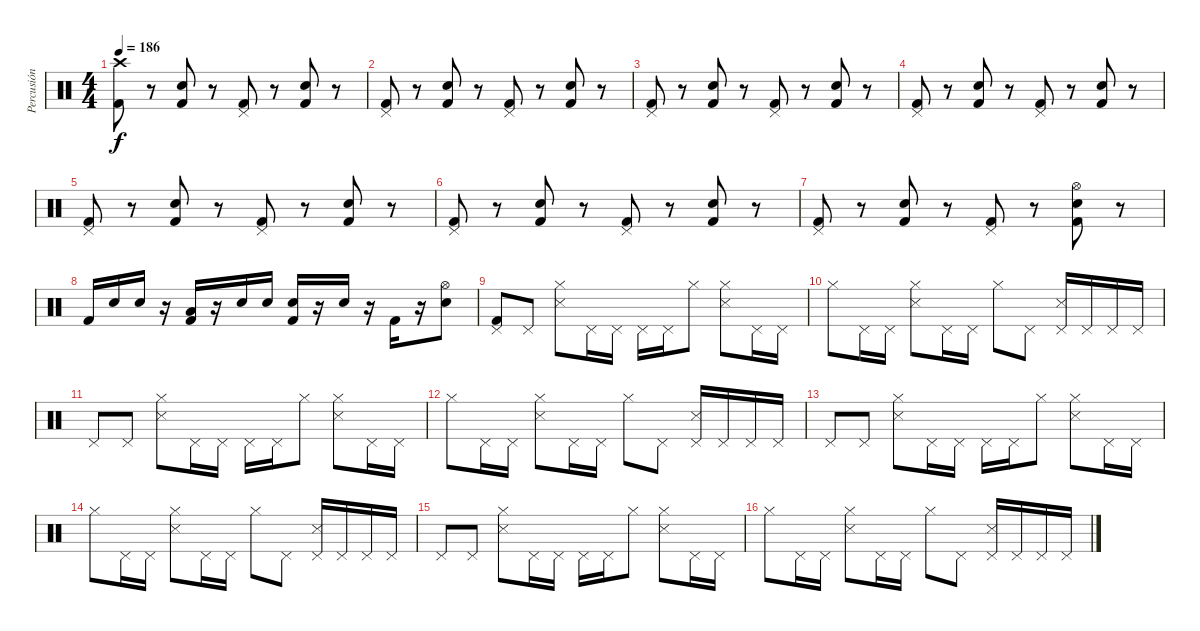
\track ("Percusión" "Percusión") {instrument percussion}
\staff {score}
\articulation defaults
\ts (4 4)
\tempo 186
\clef neutral
\ks c
("Kick (hit) 2" "Crash high (hit)").8{dy f} r.8 ("Kick (hit) 2" "Snare (hit) 2").8 r.8 ("Kick (hit) 2" "Pedal Hi-Hat (hit)").8 r.8 ("Kick (hit) 2" "Snare (hit) 2").8 r.8 |
("Kick (hit) 2" "Pedal Hi-Hat (hit)").8 r.8 ("Kick (hit) 2" "Snare (hit) 2").8 r.8 ("Kick (hit) 2" "Pedal Hi-Hat (hit)").8 r.8 ("Kick (hit) 2" "Snare (hit) 2").8 r.8 |
("Kick (hit) 2" "Pedal Hi-Hat (hit)").8 r.8 ("Kick (hit) 2" "Snare (hit) 2").8 r.8 ("Kick (hit) 2" "Pedal Hi-Hat (hit)").8 r.8 ("Kick (hit) 2" "Snare (hit) 2").8 r.8 |
("Kick (hit) 2" "Pedal Hi-Hat (hit)").8 r.8 ("Kick (hit) 2" "Snare (hit) 2").8 r.8 ("Kick (hit) 2" "Pedal Hi-Hat (hit)").8 r.8 ("Kick (hit) 2" "Snare (hit) 2").8 r.8 |
("Kick (hit) 2" "Pedal Hi-Hat (hit)").8 r.8 ("Kick (hit) 2" "Snare (hit) 2").8 r.8 ("Kick (hit) 2" "Pedal Hi-Hat (hit)").8 r.8 ("Kick (hit) 2" "Snare (hit) 2").8 r.8 |
("Kick (hit) 2" "Pedal Hi-Hat (hit)").8 r.8 ("Kick (hit) 2" "Snare (hit) 2").8 r.8 ("Kick (hit) 2" "Pedal Hi-Hat (hit)").8 r.8 ("Kick (hit) 2" "Snare (hit) 2").8 r.8 |
("Kick (hit) 2" "Pedal Hi-Hat (hit)").8 r.8 ("Kick (hit) 2" "Snare (hit) 2").8 r.8 ("Kick (hit) 2" "Pedal Hi-Hat (hit)").8 r.8 ("Kick (hit) 2" "Hi-Hat (open)" "Snare (hit) 2").8 r.8 |
"Kick (hit) 2".16 "Snare (hit) 2".16 "Snare (hit) 2".16 r.16 ("Kick (hit) 2" "Low Floor Tom (hit)").16 r.16 "Snare (hit) 2".16 "Snare (hit) 2".16 ("Kick (hit) 2" "Snare (hit) 2").16 r.16 "Snare (hit) 2".16 r.16 "Kick (hit) 2".16 r.16 ("Snare (hit) 2" "Hi-Hat (open)").8 |
("Kick (hit) 2" "Pedal Hi-Hat (hit)").8{volume 6} "Pedal Hi-Hat (hit)".8 ("Metronome (hit)" "Hi-Hat (closed)").8 "Pedal Hi-Hat (hit)".16 "Pedal Hi-Hat (hit)".16 "Pedal Hi-Hat (hit)".16 "Pedal Hi-Hat (hit)".16 "Hi-Hat (closed)".8 ("Metronome (hit)" "Hi-Hat (closed)").8 "Pedal Hi-Hat (hit)".16 "Pedal Hi-Hat (hit)".16 |
"Hi-Hat (closed)".8 "Pedal Hi-Hat (hit)".16 "Pedal Hi-Hat (hit)".16 ("Metronome (hit)" "Hi-Hat (closed)").8 "Pedal Hi-Hat (hit)".16 "Pedal Hi-Hat (hit)".16 "Hi-Hat (closed)".8 "Pedal Hi-Hat (hit)".8 ("Metronome (hit)" "Pedal Hi-Hat (hit)").16 "Pedal Hi-Hat (hit)".16 "Pedal Hi-Hat (hit)".16 "Pedal Hi-Hat (hit)".16 |
"Pedal Hi-Hat (hit)".8 "Pedal Hi-Hat (hit)".8 ("Metronome (hit)" "Hi-Hat (closed)").8 "Pedal Hi-Hat (hit)".16 "Pedal Hi-Hat (hit)".16 "Pedal Hi-Hat (hit)".16 "Pedal Hi-Hat (hit)".16 "Hi-Hat (closed)".8 ("Metronome (hit)" "Hi-Hat (closed)").8 "Pedal Hi-Hat (hit)".16 "Pedal Hi-Hat (hit)".16 |
"Hi-Hat (closed)".8 "Pedal Hi-Hat (hit)".16 "Pedal Hi-Hat (hit)".16 ("Metronome (hit)" "Hi-Hat (closed)").8 "Pedal Hi-Hat (hit)".16 "Pedal Hi-Hat (hit)".16 "Hi-Hat (closed)".8 "Pedal Hi-Hat (hit)".8 ("Metronome (hit)" "Pedal Hi-Hat (hit)").16 "Pedal Hi-Hat (hit)".16 "Pedal Hi-Hat (hit)".16 "Pedal Hi-Hat (hit)".16 |
"Pedal Hi-Hat (hit)".8 "Pedal Hi-Hat (hit)".8 ("Metronome (hit)" "Hi-Hat (closed)").8 "Pedal Hi-Hat (hit)".16 "Pedal Hi-Hat (hit)".16 "Pedal Hi-Hat (hit)".16 "Pedal Hi-Hat (hit)".16 "Hi-Hat (closed)".8 ("Metronome (hit)" "Hi-Hat (closed)").8 "Pedal Hi-Hat (hit)".16 "Pedal Hi-Hat (hit)".16 |
"Hi-Hat (closed)".8 "Pedal Hi-Hat (hit)".16 "Pedal Hi-Hat (hit)".16 ("Metronome (hit)" "Hi-Hat (closed)").8 "Pedal Hi-Hat (hit)".16 "Pedal Hi-Hat (hit)".16 "Hi-Hat (closed)".8 "Pedal Hi-Hat (hit)".8 ("Metronome (hit)" "Pedal Hi-Hat (hit)").16 "Pedal Hi-Hat (hit)".16 "Pedal Hi-Hat (hit)".16 "Pedal Hi-Hat (hit)".16 |
"Pedal Hi-Hat (hit)".8 "Pedal Hi-Hat (hit)".8 ("Metronome (hit)" "Hi-Hat (closed)").8 "Pedal Hi-Hat (hit)".16 "Pedal Hi-Hat (hit)".16 "Pedal Hi-Hat (hit)".16 "Pedal Hi-Hat (hit)".16 "Hi-Hat (closed)".8 ("Metronome (hit)" "Hi-Hat (closed)").8 "Pedal Hi-Hat (hit)".16 "Pedal Hi-Hat (hit)".16 |
"Hi-Hat (closed)".8 "Pedal Hi-Hat (hit)".16 "Pedal Hi-Hat (hit)".16 ("Metronome (hit)" "Hi-Hat (closed)").8 "Pedal Hi-Hat (hit)".16 "Pedal Hi-Hat (hit)".16 "Hi-Hat (closed)".8 "Pedal Hi-Hat (hit)".8 ("Metronome (hit)" "Pedal Hi-Hat (hit)").16 "Pedal Hi-Hat (hit)".16 "Pedal Hi-Hat (hit)".16 "Pedal Hi-Hat (hit)".16
